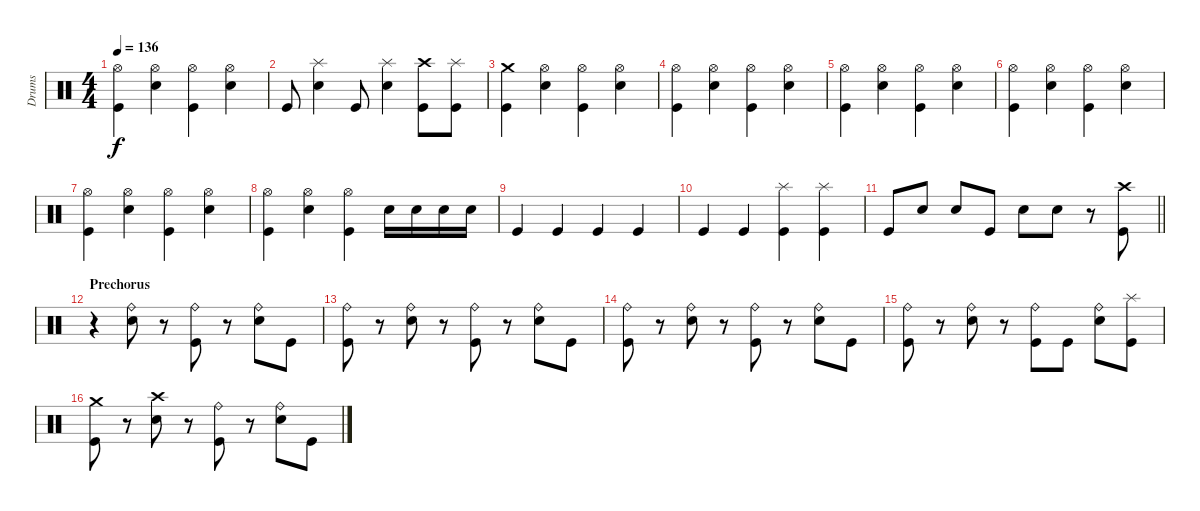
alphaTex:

\track ("Drums" "Drums") {instrument percussion}
\staff {score}
\articulation defaults
\ts (4 4)
\tempo 136
\clef neutral
\ks c
("Kick (hit)" "Hi-Hat (open)").4{dy f} ("Electric Snare (hit)" "Hi-Hat (open)").4 ("Kick (hit)" "Hi-Hat (open)").4 ("Electric Snare (hit)" "Hi-Hat (open)").4 |
"Kick (hit)".8 ("Electric Snare (hit)" "Splash (hit)").4 "Kick (hit)".8 ("Electric Snare (hit)" "Splash (hit)").4 ("Kick (hit)" "Crash high (hit)").8 ("Kick (hit)" "Splash (hit)").8 |
("Kick (hit)" "Crash medium (hit)").4 ("Electric Snare (hit)" "Hi-Hat (open)").4 ("Kick (hit)" "Hi-Hat (open)").4 ("Electric Snare (hit)" "Hi-Hat (open)").4 |
("Kick (hit)" "Hi-Hat (open)").4 ("Electric Snare (hit)" "Hi-Hat (open)").4 ("Kick (hit)" "Hi-Hat (open)").4 ("Electric Snare (hit)" "Hi-Hat (open)").4 |
("Kick (hit)" "Hi-Hat (open)").4 ("Electric Snare (hit)" "Hi-Hat (open)").4 ("Kick (hit)" "Hi-Hat (open)").4 ("Electric Snare (hit)" "Hi-Hat (open)").4 |
("Kick (hit)" "Hi-Hat (open)").4 ("Electric Snare (hit)" "Hi-Hat (open)").4 ("Kick (hit)" "Hi-Hat (open)").4 ("Electric Snare (hit)" "Hi-Hat (open)").4 |
("Kick (hit)" "Hi-Hat (open)").4 ("Electric Snare (hit)" "Hi-Hat (open)").4 ("Kick (hit)" "Hi-Hat (open)").4 ("Electric Snare (hit)" "Hi-Hat (open)").4 |
("Kick (hit)" "Hi-Hat (open)").4 ("Electric Snare (hit)" "Hi-Hat (open)").4 ("Kick (hit)" "Hi-Hat (open)").4 "Electric Snare (hit)".16 "Electric Snare (hit)".16 "Electric Snare (hit)".16 "Electric Snare (hit)".16 |
"Kick (hit)".4 "Kick (hit)".4 "Kick (hit)".4 "Kick (hit)".4 |
"Kick (hit)".4 "Kick (hit)".4 ("Kick (hit)" "Splash (hit)").4 ("Kick (hit)" "Splash (hit)").4 |
\barLineRight lightlight "Kick (hit)".8 "Electric Snare (hit)".8 "Electric Snare (hit)".8 "Kick (hit)".8 "Electric Snare (hit)".8 "Electric Snare (hit)".8
r.8 ("Kick (hit)" "Crash high (hit)").8 |
\section ("" "Prechorus")
r.4 ("Electric Snare (hit)" "Ride (bell)").8 r.8 ("Kick (hit)" "Ride (bell)").8 r.8 ("Electric Snare (hit)" "Ride (bell)").8 "Kick (hit)".8 |
("Kick (hit)" "Ride (bell)").8 r.8 ("Electric Snare (hit)" "Ride (bell)").8 r.8 ("Kick (hit)" "Ride (bell)").8 r.8 ("Electric Snare (hit)" "Ride (bell)").8 "Kick (hit)".8 |
("Kick (hit)" "Ride (bell)").8 r.8 ("Electric Snare (hit)" "Ride (bell)").8 r.8 ("Kick (hit)" "Ride (bell)").8 r.8 ("Electric Snare (hit)" "Ride (bell)").8 "Kick (hit)".8 |
("Kick (hit)" "Ride (bell)").8 r.8 ("Electric Snare (hit)" "Ride (bell)").8 r.8 ("Kick (hit)" "Ride (bell)").8 "Kick (hit)".8 ("Electric Snare (hit)" "Ride (bell)").8 ("Kick (hit)" "Splash (hit)").8 |
("Kick (hit)" "Crash medium (hit)").8 r.8 ("Electric Snare (hit)" "Crash high (hit)").8 r.8 ("Kick (hit)" "Ride (bell)").8 r.8 ("Electric Snare (hit)" "Ride (bell)").8 "Kick (hit)".8
